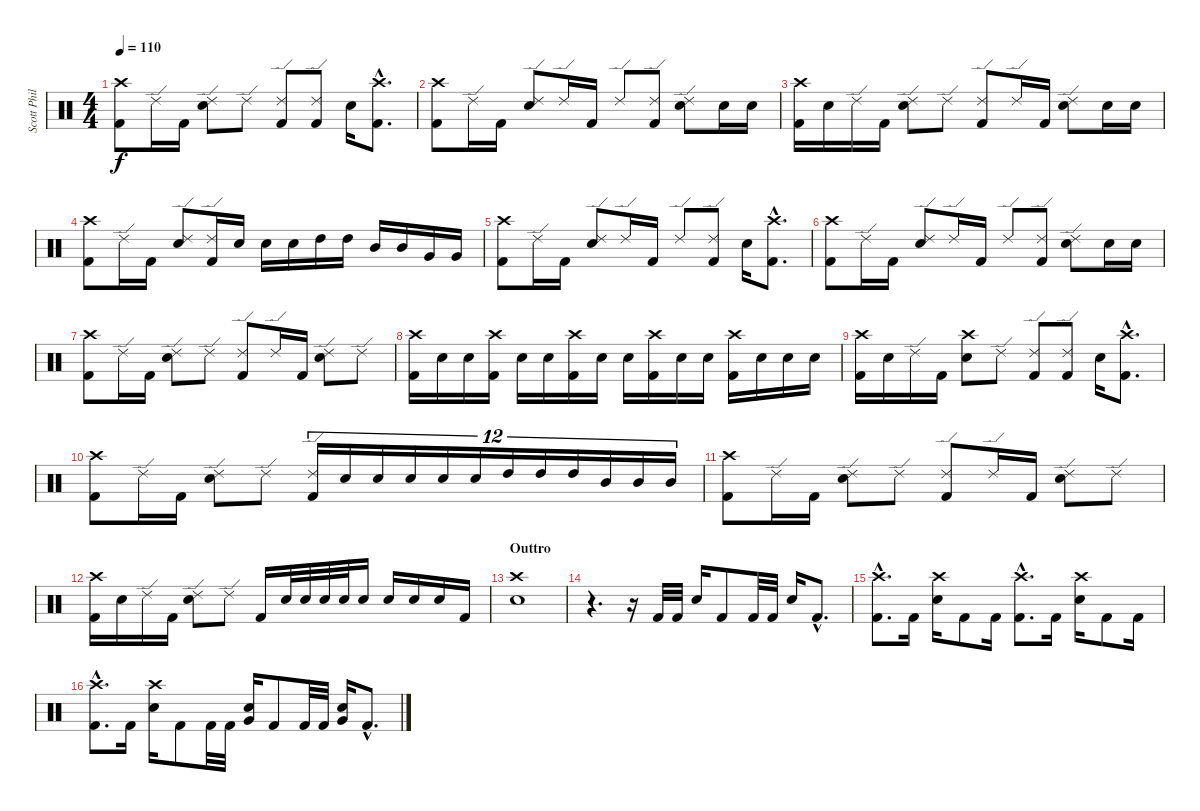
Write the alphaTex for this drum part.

\track ("Scott Phillips" "Scott Phil") {instrument percussion}
\staff {score}
\articulation defaults
\ts (4 4)
\tempo 110
\clef neutral
\ks c
("Crash high (hit)" "Kick (hit) 2").8{dy f} "Ride (edge) 2".16 "Kick (hit) 2".16 ("Ride (edge) 2" "Snare (hit) 2").8 "Ride (edge) 2".8 ("Ride (edge) 2" "Kick (hit) 2").8 ("Ride (edge) 2" "Kick (hit) 2").8 "Snare (hit) 2".16 ("Crash high (hit)"{hac} "Kick (hit) 2"{hac}).8{d} |
("Crash high (hit)" "Kick (hit) 2").8 "Ride (edge) 2".16 "Kick (hit) 2".16 ("Ride (edge) 2" "Snare (hit) 2").8 "Ride (edge) 2".16 "Kick (hit) 2".16 "Ride (edge) 2".8 ("Ride (edge) 2" "Kick (hit) 2").8 ("Ride (edge) 2" "Snare (hit) 2").8 "Snare (hit) 2".16 "Snare (hit) 2".16 |
("Crash high (hit)" "Kick (hit) 2").16 "Snare (hit) 2".16 "Ride (edge) 2".16 "Kick (hit) 2".16 ("Ride (edge) 2" "Snare (hit) 2").8 "Ride (edge) 2".8 ("Ride (edge) 2" "Kick (hit) 2").8 "Ride (edge) 2".16 "Kick (hit) 2".16 ("Ride (edge) 2" "Snare (hit) 2").8 "Snare (hit) 2".16 "Snare (hit) 2".16 |
("Crash high (hit)" "Kick (hit) 2").8 "Ride (edge) 2".16 "Kick (hit) 2".16 ("Ride (edge) 2" "Snare (hit) 2").8 ("Ride (edge) 2" "Kick (hit) 2").16 "Snare (hit) 2".16 "Snare (hit) 2".16 "Snare (hit) 2".16 "High Tom (hit)".16 "High Tom (hit)".16 "Mid Tom (hit)".16 "Mid Tom (hit)".16 "Very Low Tom (hit)".16 "Very Low Tom (hit)".16 |
("Crash high (hit)" "Kick (hit) 2").8 "Ride (edge) 2".16 "Kick (hit) 2".16 ("Ride (edge) 2" "Snare (hit) 2").8 "Ride (edge) 2".16 "Kick (hit) 2".16 "Ride (edge) 2".8 ("Ride (edge) 2" "Kick (hit) 2").8 "Snare (hit) 2".16 ("Crash high (hit)"{hac} "Kick (hit) 2"{hac}).8{d} |
("Crash high (hit)" "Kick (hit) 2").8 "Ride (edge) 2".16 "Kick (hit) 2".16 ("Ride (edge) 2" "Snare (hit) 2").8 "Ride (edge) 2".16 "Kick (hit) 2".16 "Ride (edge) 2".8 ("Ride (edge) 2" "Kick (hit) 2").8 ("Ride (edge) 2" "Snare (hit) 2").8 "Snare (hit) 2".16 "Snare (hit) 2".16 |
("Crash high (hit)" "Kick (hit) 2").8 "Ride (edge) 2".16 "Kick (hit) 2".16 ("Ride (edge) 2" "Snare (hit) 2").8 "Ride (edge) 2".8 ("Ride (edge) 2" "Kick (hit) 2").8 "Ride (edge) 2".16 "Kick (hit) 2".16 ("Ride (edge) 2" "Snare (hit) 2").8 "Ride (edge) 2".8 |
("Crash high (hit)" "Kick (hit) 2").16 "Snare (hit) 2".16 "Snare (hit) 2".16 ("Crash high (hit)" "Kick (hit) 2").16 "Snare (hit) 2".16 "Snare (hit) 2".16 ("Crash high (hit)" "Kick (hit) 2").16 "Snare (hit) 2".16 "Snare (hit) 2".16 ("Crash high (hit)" "Kick (hit) 2").16 "Snare (hit) 2".16 "Snare (hit) 2".16 ("Crash high (hit)" "Kick (hit) 2").16 "Snare (hit) 2".16 "Snare (hit) 2".16 "Snare (hit) 2".16 |
("Crash high (hit)" "Kick (hit) 2").16 "Snare (hit) 2".16 "Ride (edge) 2".16 "Kick (hit) 2".16 ("Crash high (hit)" "Snare (hit) 2").8 "Ride (edge) 2".8 ("Ride (edge) 2" "Kick (hit) 2").8 ("Ride (edge) 2" "Kick (hit) 2").8 "Snare (hit) 2".16 ("Crash high (hit)"{hac} "Kick (hit) 2"{hac}).8{d} |
("Crash high (hit)" "Kick (hit) 2").8 "Ride (edge) 2".16 "Kick (hit) 2".16 ("Ride (edge) 2" "Snare (hit) 2").8 "Ride (edge) 2".8 ("Ride (edge) 2" "Kick (hit) 2").16{tu (12 8)} "Snare (hit) 2".16{tu (12 8)} "Snare (hit) 2".16{tu (12 8)} "Snare (hit) 2".16{tu (12 8)} "Snare (hit) 2".16{tu (12 8)} "Snare (hit) 2".16{tu (12 8)} "High Tom (hit)".16{tu (12 8)} "High Tom (hit)".16{tu (12 8)} "High Tom (hit)".16{tu (12 8)} "Mid Tom (hit)".16{tu (12 8)} "Mid Tom (hit)".16{tu (12 8)} "Mid Tom (hit)".16{tu (12 8)} |
("Crash high (hit)" "Kick (hit) 2").8 "Ride (edge) 2".16 "Kick (hit) 2".16 ("Ride (edge) 2" "Snare (hit) 2").8 "Ride (edge) 2".8 ("Ride (edge) 2" "Kick (hit) 2").8 "Ride (edge) 2".16 "Kick (hit) 2".16 ("Ride (edge) 2" "Snare (hit) 2").8 "Ride (edge) 2".8 |
("Crash high (hit)" "Kick (hit) 2").16 "Snare (hit) 2".16 "Ride (edge) 2".16 "Kick (hit) 2".16 ("Ride (edge) 2" "Snare (hit) 2").8 "Ride (edge) 2".8 "Kick (hit) 2".16 "Snare (hit) 2".32 "Snare (hit) 2".32 "Snare (hit) 2".32 "Snare (hit) 2".32 "Snare (hit) 2".16 "Snare (hit) 2".16 "Snare (hit) 2".16 "Snare (hit) 2".16 "Kick (hit) 2".16 |
\section ("" "Outtro")
("Crash high (hit)" "Snare (hit) 2").1 |
r.4{d} r.16 "Kick (hit) 2".32 "Kick (hit) 2".32 "Snare (hit) 2".16 "Kick (hit) 2".8 "Kick (hit) 2".32 "Kick (hit) 2".32 "Snare (hit) 2".16 "Kick (hit) 2"{hac}.8{d} |
("Crash high (hit)"{hac} "Kick (hit) 2"{hac}).8{d} "Kick (hit) 2".16 ("Crash high (hit)" "Snare (hit) 2").16 "Kick (hit) 2".8 "Kick (hit) 2".16 ("Crash high (hit)"{hac} "Kick (hit) 2"{hac}).8{d} "Kick (hit) 2".16 ("Crash high (hit)" "Snare (hit) 2").16 "Kick (hit) 2".8 "Kick (hit) 2".16 |
("Crash high (hit)"{hac} "Kick (hit) 2"{hac}).8{d} "Kick (hit) 2".16 ("Crash high (hit)" "Snare (hit) 2").16 "Kick (hit) 2".8 "Kick (hit) 2".32 "Kick (hit) 2".32 ("Very Low Tom (hit)" "Snare (hit) 2").16 "Kick (hit) 2".8 "Kick (hit) 2".32 "Kick (hit) 2".32 ("Very Low Tom (hit)" "Snare (hit) 2").16 "Kick (hit) 2"{hac}.8{d}
